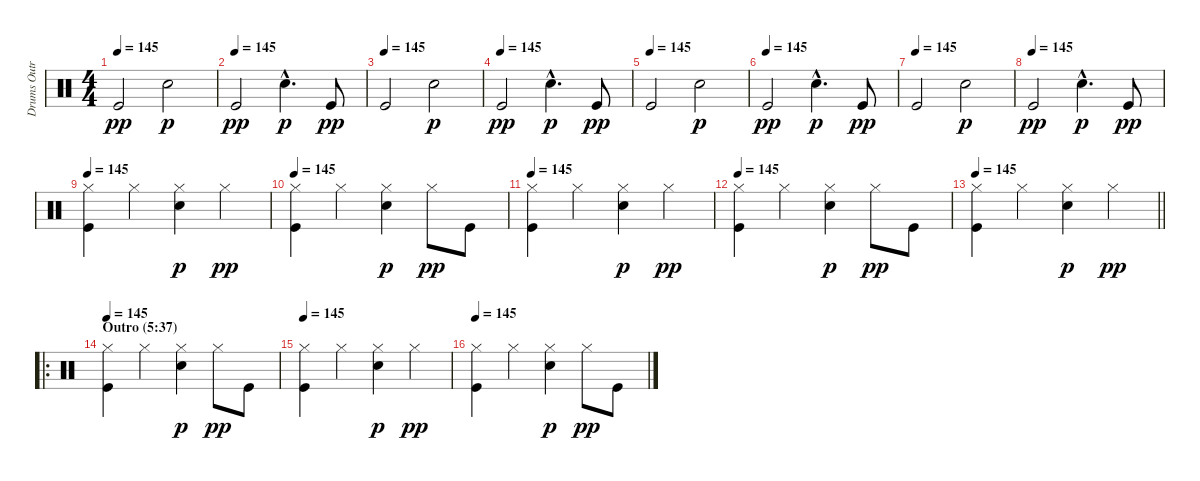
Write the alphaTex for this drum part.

\track ("Drums Outro" "Drums Outr") {instrument percussion}
\staff {score}
\articulation defaults
\ts (4 4)
\tempo 145
\clef neutral
\ks c "Kick (hit)".2{dy pp} "Snare (hit) 2".2{dy p}
|
\tempo (145)
"Kick (hit)".2{dy pp} "Snare (hit) 2"{hac}.4{d dy p} "Kick (hit)".8{dy pp} |
\tempo (145)
"Kick (hit)".2 "Snare (hit) 2".2{dy p} |
\tempo (145)
"Kick (hit)".2{dy pp} "Snare (hit) 2"{hac}.4{d dy p} "Kick (hit)".8{dy pp} |
\tempo (145)
"Kick (hit)".2 "Snare (hit) 2".2{dy p} |
\tempo (145)
"Kick (hit)".2{dy pp} "Snare (hit) 2"{hac}.4{d dy p} "Kick (hit)".8{dy pp} |
\tempo (145)
"Kick (hit)".2 "Snare (hit) 2".2{dy p} |
\tempo (145)
"Kick (hit)".2{dy pp} "Snare (hit) 2"{hac}.4{d dy p} "Kick (hit)".8{dy pp} |
\tempo 145
("Hi-Hat (closed)" "Kick (hit)").4 "Hi-Hat (closed)".4 ("Hi-Hat (closed)" "Snare (hit) 2").4{dy p} "Hi-Hat (closed)".4{dy pp} |
\tempo 145
("Hi-Hat (closed)" "Kick (hit)").4 "Hi-Hat (closed)".4 ("Hi-Hat (closed)" "Snare (hit) 2").4{dy p} "Hi-Hat (closed)".8{dy pp} "Kick (hit)".8 |
\tempo 145
("Hi-Hat (closed)" "Kick (hit)").4 "Hi-Hat (closed)".4 ("Hi-Hat (closed)" "Snare (hit) 2").4{dy p} "Hi-Hat (closed)".4{dy pp} |
\tempo 145
("Hi-Hat (closed)" "Kick (hit)").4 "Hi-Hat (closed)".4 ("Hi-Hat (closed)" "Snare (hit) 2").4{dy p} "Hi-Hat (closed)".8{dy pp} "Kick (hit)".8 |
\tempo 145
\barLineRight lightlight
("Hi-Hat (closed)" "Kick (hit)").4 "Hi-Hat (closed)".4 ("Hi-Hat (closed)" "Snare (hit) 2").4{dy p} "Hi-Hat (closed)".4{dy pp} |
\ro
\section ("" "Outro (5:37)")
\tempo 145
("Hi-Hat (closed)" "Kick (hit)").4 "Hi-Hat (closed)".4 ("Hi-Hat (closed)" "Snare (hit) 2").4{dy p} "Hi-Hat (closed)".8{dy pp} "Kick (hit)".8 |
\tempo 145
("Hi-Hat (closed)" "Kick (hit)").4 "Hi-Hat (closed)".4 ("Hi-Hat (closed)" "Snare (hit) 2").4{dy p} "Hi-Hat (closed)".4{dy pp} |
\tempo 145
("Hi-Hat (closed)" "Kick (hit)").4 "Hi-Hat (closed)".4 ("Hi-Hat (closed)" "Snare (hit) 2").4{dy p} "Hi-Hat (closed)".8{dy pp} "Kick (hit)".8
